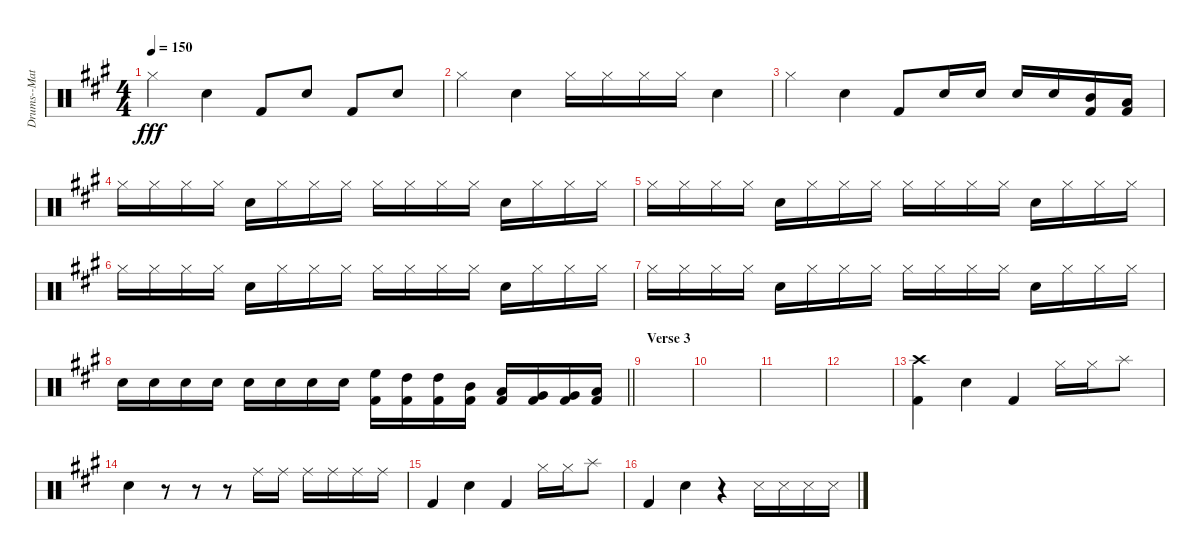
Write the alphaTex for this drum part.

\track ("Drums--Matt Whalen" "Drums--Mat") {instrument percussion}
\staff {score}
\articulation defaults
\ts (4 4)
\tempo 150
\clef neutral
\ks a "Hi-Hat (closed)".4{dy fff} "Snare (hit) 2".4 "Kick (hit) 2".8 "Snare (hit) 2".8 "Kick (hit) 2".8 "Snare (hit) 2".8
|
"Hi-Hat (closed)".4 "Snare (hit) 2".4 "Hi-Hat (closed)".16 "Hi-Hat (closed)".16 "Hi-Hat (closed)".16 "Hi-Hat (closed)".16 "Snare (hit) 2".4 |
"Hi-Hat (closed)".4 "Snare (hit) 2".4 "Kick (hit) 2".8 "Snare (hit) 2".16 "Snare (hit) 2".16 "Snare (hit) 2".16 "Snare (hit) 2".16 ("Kick (hit) 2" "Mid Tom (hit)").16 ("Kick (hit) 2" "Low Tom (hit)").16 |
"Hi-Hat (closed)".16 "Hi-Hat (closed)".16 "Hi-Hat (closed)".16 "Hi-Hat (closed)".16 "Snare (hit) 2".16 "Hi-Hat (closed)".16 "Hi-Hat (closed)".16 "Hi-Hat (closed)".16 "Hi-Hat (closed)".16 "Hi-Hat (closed)".16 "Hi-Hat (closed)".16 "Hi-Hat (closed)".16 "Snare (hit) 2".16 "Hi-Hat (closed)".16 "Hi-Hat (closed)".16 "Hi-Hat (closed)".16 |
"Hi-Hat (closed)".16 "Hi-Hat (closed)".16 "Hi-Hat (closed)".16 "Hi-Hat (closed)".16 "Snare (hit) 2".16 "Hi-Hat (closed)".16 "Hi-Hat (closed)".16 "Hi-Hat (closed)".16 "Hi-Hat (closed)".16 "Hi-Hat (closed)".16 "Hi-Hat (closed)".16 "Hi-Hat (closed)".16 "Snare (hit) 2".16 "Hi-Hat (closed)".16 "Hi-Hat (closed)".16 "Hi-Hat (closed)".16 |
"Hi-Hat (closed)".16 "Hi-Hat (closed)".16 "Hi-Hat (closed)".16 "Hi-Hat (closed)".16 "Snare (hit) 2".16 "Hi-Hat (closed)".16 "Hi-Hat (closed)".16 "Hi-Hat (closed)".16 "Hi-Hat (closed)".16 "Hi-Hat (closed)".16 "Hi-Hat (closed)".16 "Hi-Hat (closed)".16 "Snare (hit) 2".16 "Hi-Hat (closed)".16 "Hi-Hat (closed)".16 "Hi-Hat (closed)".16 |
"Hi-Hat (closed)".16 "Hi-Hat (closed)".16 "Hi-Hat (closed)".16 "Hi-Hat (closed)".16 "Snare (hit) 2".16 "Hi-Hat (closed)".16 "Hi-Hat (closed)".16 "Hi-Hat (closed)".16 "Hi-Hat (closed)".16 "Hi-Hat (closed)".16 "Hi-Hat (closed)".16 "Hi-Hat (closed)".16 "Snare (hit) 2".16 "Hi-Hat (closed)".16 "Hi-Hat (closed)".16 "Hi-Hat (closed)".16 |
\barLineRight lightlight "Snare (hit) 2".16 "Snare (hit) 2".16 "Snare (hit) 2".16 "Snare (hit) 2".16 "Snare (hit) 2".16 "Snare (hit) 2".16 "Snare (hit) 2".16 "Snare (hit) 2".16
("Kick (hit) 2" "High Floor Tom (hit)").16 ("Kick (hit) 2" "High Tom (hit)").16 ("Kick (hit) 2" "High Tom (hit)").16 ("Kick (hit) 2" "Mid Tom (hit)").16 ("Kick (hit) 2" "Low Tom (hit)").16 ("Kick (hit) 2" "Very Low Tom (hit)").16 ("Kick (hit) 2" "Very Low Tom (hit)").16 ("Kick (hit) 2" "Low Floor Tom (hit)").16 |
\section ("" "Verse 3")
|
|
|
|
("Crash high (hit)" "Kick (hit) 2").4 "Snare (hit) 2".4 "Kick (hit) 2".4 "Hi-Hat (closed)".16 "Hi-Hat (closed)".16 "Splash (hit)".8 |
"Snare (hit) 2".4 r.8 r.8 r.8 "Ride (middle)".16 "Ride (middle)".16 "Ride (middle)".16 "Ride (middle)".16 "Ride (middle)".16 "Ride (middle)".16 |
"Kick (hit) 2".4 "Snare (hit) 2".4 "Kick (hit) 2".4 "Hi-Hat (closed)".16 "Hi-Hat (closed)".16 "Splash (hit)".8 |
"Kick (hit) 2".4 "Snare (hit) 2".4 r.4 "Snare (side stick) 3".16 "Snare (side stick) 3".16 "Snare (side stick) 3".16 "Snare (side stick) 3".16
